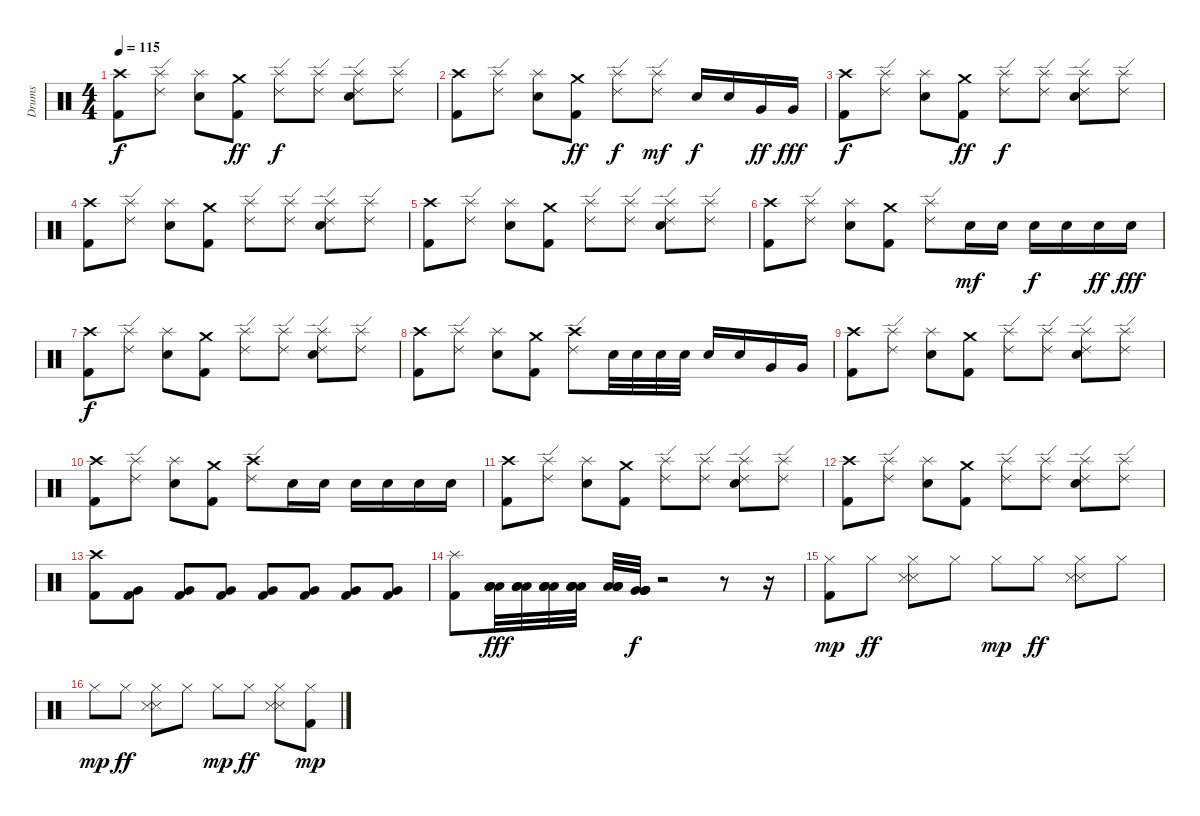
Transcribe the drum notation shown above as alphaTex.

\track ("Drums" "Drums") {instrument percussion}
\staff {score}
\articulation defaults
\ts (4 4)
\tempo 115
\clef neutral
\ks c
("Crash high (hit)" "Kick (hit) 2").8{dy f} ("Splash (hit)" "Ride (edge) 2").8 ("Splash (hit)" "Electric Snare (hit)").8 ("Crash medium (hit)" "Kick (hit) 2").8{dy ff} ("Splash (hit)" "Ride (edge) 2").8{dy f} ("Ride (edge) 2" "Splash (hit)").8 ("Ride (edge) 2" "Splash (hit)" "Electric Snare (hit)").8 ("Ride (edge) 2" "Splash (hit)").8 |
("Crash high (hit)" "Kick (hit) 2").8 ("Splash (hit)" "Ride (edge) 2").8 ("Splash (hit)" "Electric Snare (hit)").8 ("Crash medium (hit)" "Kick (hit) 2").8{dy ff} ("Splash (hit)" "Ride (edge) 2").8{dy f} ("Splash (hit)" "Ride (edge) 2").8{dy mf} "Electric Snare (hit)".16{dy f} "Electric Snare (hit)".16 "Very Low Tom (hit)".16{dy ff} "Very Low Tom (hit)".16{dy fff} |
("Crash high (hit)" "Kick (hit) 2").8{dy f} ("Splash (hit)" "Ride (edge) 2").8 ("Splash (hit)" "Electric Snare (hit)").8 ("Crash medium (hit)" "Kick (hit) 2").8{dy ff} ("Splash (hit)" "Ride (edge) 2").8{dy f} ("Ride (edge) 2" "Splash (hit)").8 ("Ride (edge) 2" "Splash (hit)" "Electric Snare (hit)").8 ("Ride (edge) 2" "Splash (hit)").8 |
("Crash high (hit)" "Kick (hit) 2").8 ("Splash (hit)" "Ride (edge) 2").8 ("Splash (hit)" "Electric Snare (hit)").8 ("Crash medium (hit)" "Kick (hit) 2").8 ("Splash (hit)" "Ride (edge) 2").8 ("Ride (edge) 2" "Splash (hit)").8 ("Ride (edge) 2" "Splash (hit)" "Electric Snare (hit)").8 ("Ride (edge) 2" "Splash (hit)").8 |
("Crash high (hit)" "Kick (hit) 2").8 ("Splash (hit)" "Ride (edge) 2").8 ("Splash (hit)" "Electric Snare (hit)").8 ("Crash medium (hit)" "Kick (hit) 2").8 ("Splash (hit)" "Ride (edge) 2").8 ("Ride (edge) 2" "Splash (hit)").8 ("Ride (edge) 2" "Splash (hit)" "Electric Snare (hit)").8 ("Ride (edge) 2" "Splash (hit)").8 |
("Crash high (hit)" "Kick (hit) 2").8 ("Splash (hit)" "Ride (edge) 2").8 ("Splash (hit)" "Electric Snare (hit)").8 ("Crash medium (hit)" "Kick (hit) 2").8 ("Splash (hit)" "Ride (edge) 2").8 "Electric Snare (hit)".16{dy mf} "Electric Snare (hit)".16 "Electric Snare (hit)".16{dy f} "Electric Snare (hit)".16 "Electric Snare (hit)".16{dy ff} "Electric Snare (hit)".16{dy fff} |
("Crash high (hit)" "Kick (hit) 2").8{dy f} ("Splash (hit)" "Ride (edge) 2").8 ("Splash (hit)" "Electric Snare (hit)").8 ("Crash medium (hit)" "Kick (hit) 2").8 ("Splash (hit)" "Ride (edge) 2").8 ("Ride (edge) 2" "Splash (hit)").8 ("Ride (edge) 2" "Splash (hit)" "Electric Snare (hit)").8 ("Ride (edge) 2" "Splash (hit)").8 |
("Crash high (hit)" "Kick (hit) 2").8 ("Splash (hit)" "Ride (edge) 2").8 ("Splash (hit)" "Electric Snare (hit)").8 ("Crash medium (hit)" "Kick (hit) 2").8 ("Crash high (hit)" "Ride (edge) 2").8 "Electric Snare (hit)".32 "Electric Snare (hit)".32 "Electric Snare (hit)".32 "Electric Snare (hit)".32 "Electric Snare (hit)".16 "Electric Snare (hit)".16 "Very Low Tom (hit)".16 "Very Low Tom (hit)".16 |
("Crash high (hit)" "Kick (hit) 2").8 ("Splash (hit)" "Ride (edge) 2").8 ("Splash (hit)" "Electric Snare (hit)").8 ("Crash medium (hit)" "Kick (hit) 2").8 ("Splash (hit)" "Ride (edge) 2").8 ("Ride (edge) 2" "Splash (hit)").8 ("Ride (edge) 2" "Splash (hit)" "Electric Snare (hit)").8 ("Ride (edge) 2" "Splash (hit)").8 |
("Crash high (hit)" "Kick (hit) 2").8 ("Splash (hit)" "Ride (edge) 2").8 ("Splash (hit)" "Electric Snare (hit)").8 ("Crash medium (hit)" "Kick (hit) 2").8 ("Crash high (hit)" "Ride (edge) 2").8 "Electric Snare (hit)".16 "Electric Snare (hit)".16 "Electric Snare (hit)".16 "Electric Snare (hit)".16 "Electric Snare (hit)".16 "Electric Snare (hit)".16 |
("Crash high (hit)" "Kick (hit) 2").8 ("Splash (hit)" "Ride (edge) 2").8 ("Splash (hit)" "Electric Snare (hit)").8 ("Crash medium (hit)" "Kick (hit) 2").8 ("Splash (hit)" "Ride (edge) 2").8 ("Ride (edge) 2" "Splash (hit)").8 ("Ride (edge) 2" "Splash (hit)" "Electric Snare (hit)").8 ("Ride (edge) 2" "Splash (hit)").8 |
("Crash high (hit)" "Kick (hit) 2").8 ("Splash (hit)" "Ride (edge) 2").8 ("Splash (hit)" "Electric Snare (hit)").8 ("Crash medium (hit)" "Kick (hit) 2").8 ("Splash (hit)" "Ride (edge) 2").8 ("Ride (edge) 2" "Splash (hit)").8 ("Ride (edge) 2" "Splash (hit)" "Electric Snare (hit)").8 ("Ride (edge) 2" "Splash (hit)").8 |
("Crash high (hit)" "Kick (hit) 2").8 ("Very Low Tom (hit)" "Kick (hit) 2").8 ("Very Low Tom (hit)" "Kick (hit) 2").8 ("Very Low Tom (hit)" "Kick (hit) 2").8 ("Very Low Tom (hit)" "Kick (hit) 2").8 ("Very Low Tom (hit)" "Kick (hit) 2").8 ("Very Low Tom (hit)" "Kick (hit) 2").8 ("Very Low Tom (hit)" "Kick (hit) 2").8 |
("Splash (hit)" "Kick (hit) 2").8 ("Low Tom (hit)" "Low Tom (hit)" "Low Tom (hit)" "Low Tom (hit)").32{dy fff} ("Low Tom (hit)" "Low Tom (hit)" "Low Tom (hit)" "Low Tom (hit)").32 ("Low Tom (hit)" "Low Tom (hit)" "Low Tom (hit)" "Low Tom (hit)").32 ("Low Tom (hit)" "Low Tom (hit)" "Low Tom (hit)" "Low Tom (hit)").32 ("Low Tom (hit)" "Low Tom (hit)" "Low Tom (hit)" "Low Tom (hit)").32 ("Very Low Tom (hit)" "Very Low Tom (hit)" "Very Low Tom (hit)" "Very Low Tom (hit)").32{dy f} r.2 r.8 r.16 |
("Hi-Hat (closed)" "Kick (hit) 2").8{dy mp} "Hi-Hat (closed)".8{dy ff} ("Hi-Hat (closed)" "Snare (side stick) 3" "Snare (side stick) 3").8 "Hi-Hat (closed)".8 "Hi-Hat (closed)".8{dy mp} "Hi-Hat (closed)".8{dy ff} ("Hi-Hat (closed)" "Snare (side stick) 3" "Snare (side stick) 3").8 "Hi-Hat (closed)".8 |
"Hi-Hat (closed)".8{dy mp} "Hi-Hat (closed)".8{dy ff} ("Hi-Hat (closed)" "Snare (side stick) 3" "Snare (side stick) 3").8 "Hi-Hat (closed)".8 "Hi-Hat (closed)".8{dy mp} "Hi-Hat (closed)".8{dy ff} ("Hi-Hat (closed)" "Snare (side stick) 3" "Snare (side stick) 3").8 ("Hi-Hat (closed)" "Kick (hit) 2").8{dy mp}
